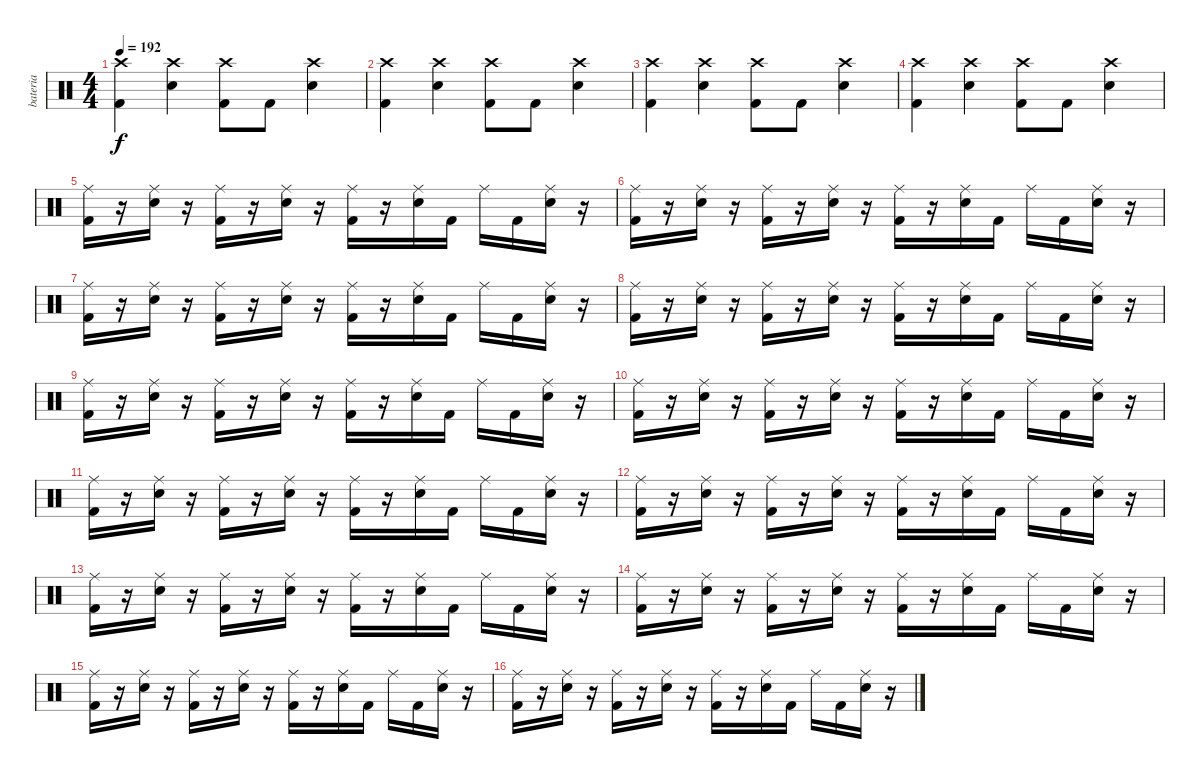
\track ("bateria" "bateria") {instrument percussion}
\staff {score}
\articulation defaults
\ts (4 4)
\tempo 192
\clef neutral
\ks c
("Crash high (hit)" "Kick (hit) 2").4{dy f} ("Crash high (hit)" "Snare (hit) 2").4 ("Crash high (hit)" "Kick (hit) 2").8 "Kick (hit) 2".8 ("Crash high (hit)" "Snare (hit) 2").4 |
("Crash high (hit)" "Kick (hit) 2").4 ("Crash high (hit)" "Snare (hit) 2").4 ("Crash high (hit)" "Kick (hit) 2").8 "Kick (hit) 2".8 ("Crash high (hit)" "Snare (hit) 2").4 |
("Crash high (hit)" "Kick (hit) 2").4 ("Crash high (hit)" "Snare (hit) 2").4 ("Crash high (hit)" "Kick (hit) 2").8 "Kick (hit) 2".8 ("Crash high (hit)" "Snare (hit) 2").4 |
("Crash high (hit)" "Kick (hit) 2").4 ("Crash high (hit)" "Snare (hit) 2").4 ("Crash high (hit)" "Kick (hit) 2").8 "Kick (hit) 2".8 ("Crash high (hit)" "Snare (hit) 2").4 |
("Ride (middle)" "Kick (hit) 2").16 r.16 ("Ride (middle)" "Snare (hit) 2").16 r.16 ("Ride (middle)" "Kick (hit) 2").16 r.16 ("Ride (middle)" "Snare (hit) 2").16 r.16 ("Ride (middle)" "Kick (hit) 2").16 r.16 ("Ride (middle)" "Snare (hit) 2").16 "Kick (hit) 2".16 "Ride (middle)".16 "Kick (hit) 2".16 ("Ride (middle)" "Snare (hit) 2").16 r.16 |
("Ride (middle)" "Kick (hit) 2").16 r.16 ("Ride (middle)" "Snare (hit) 2").16 r.16 ("Ride (middle)" "Kick (hit) 2").16 r.16 ("Ride (middle)" "Snare (hit) 2").16 r.16 ("Ride (middle)" "Kick (hit) 2").16 r.16 ("Ride (middle)" "Snare (hit) 2").16 "Kick (hit) 2".16 "Ride (middle)".16 "Kick (hit) 2".16 ("Ride (middle)" "Snare (hit) 2").16 r.16 |
("Ride (middle)" "Kick (hit) 2").16 r.16 ("Ride (middle)" "Snare (hit) 2").16 r.16 ("Ride (middle)" "Kick (hit) 2").16 r.16 ("Ride (middle)" "Snare (hit) 2").16 r.16 ("Ride (middle)" "Kick (hit) 2").16 r.16 ("Ride (middle)" "Snare (hit) 2").16 "Kick (hit) 2".16 "Ride (middle)".16 "Kick (hit) 2".16 ("Ride (middle)" "Snare (hit) 2").16 r.16 |
("Ride (middle)" "Kick (hit) 2").16 r.16 ("Ride (middle)" "Snare (hit) 2").16 r.16 ("Ride (middle)" "Kick (hit) 2").16 r.16 ("Ride (middle)" "Snare (hit) 2").16 r.16 ("Ride (middle)" "Kick (hit) 2").16 r.16 ("Ride (middle)" "Snare (hit) 2").16 "Kick (hit) 2".16 "Ride (middle)".16 "Kick (hit) 2".16 ("Ride (middle)" "Snare (hit) 2").16 r.16 |
("Ride (middle)" "Kick (hit) 2").16 r.16 ("Ride (middle)" "Snare (hit) 2").16 r.16 ("Ride (middle)" "Kick (hit) 2").16 r.16 ("Ride (middle)" "Snare (hit) 2").16 r.16 ("Ride (middle)" "Kick (hit) 2").16 r.16 ("Ride (middle)" "Snare (hit) 2").16 "Kick (hit) 2".16 "Ride (middle)".16 "Kick (hit) 2".16 ("Ride (middle)" "Snare (hit) 2").16 r.16 |
("Ride (middle)" "Kick (hit) 2").16 r.16 ("Ride (middle)" "Snare (hit) 2").16 r.16 ("Ride (middle)" "Kick (hit) 2").16 r.16 ("Ride (middle)" "Snare (hit) 2").16 r.16 ("Ride (middle)" "Kick (hit) 2").16 r.16 ("Ride (middle)" "Snare (hit) 2").16 "Kick (hit) 2".16 "Ride (middle)".16 "Kick (hit) 2".16 ("Ride (middle)" "Snare (hit) 2").16 r.16 |
("Ride (middle)" "Kick (hit) 2").16 r.16 ("Ride (middle)" "Snare (hit) 2").16 r.16 ("Ride (middle)" "Kick (hit) 2").16 r.16 ("Ride (middle)" "Snare (hit) 2").16 r.16 ("Ride (middle)" "Kick (hit) 2").16 r.16 ("Ride (middle)" "Snare (hit) 2").16 "Kick (hit) 2".16 "Ride (middle)".16 "Kick (hit) 2".16 ("Ride (middle)" "Snare (hit) 2").16 r.16 |
("Ride (middle)" "Kick (hit) 2").16 r.16 ("Ride (middle)" "Snare (hit) 2").16 r.16 ("Ride (middle)" "Kick (hit) 2").16 r.16 ("Ride (middle)" "Snare (hit) 2").16 r.16 ("Ride (middle)" "Kick (hit) 2").16 r.16 ("Ride (middle)" "Snare (hit) 2").16 "Kick (hit) 2".16 "Ride (middle)".16 "Kick (hit) 2".16 ("Ride (middle)" "Snare (hit) 2").16 r.16 |
("Ride (middle)" "Kick (hit) 2").16 r.16 ("Ride (middle)" "Snare (hit) 2").16 r.16 ("Ride (middle)" "Kick (hit) 2").16 r.16 ("Ride (middle)" "Snare (hit) 2").16 r.16 ("Ride (middle)" "Kick (hit) 2").16 r.16 ("Ride (middle)" "Snare (hit) 2").16 "Kick (hit) 2".16 "Ride (middle)".16 "Kick (hit) 2".16 ("Ride (middle)" "Snare (hit) 2").16 r.16 |
("Ride (middle)" "Kick (hit) 2").16 r.16 ("Ride (middle)" "Snare (hit) 2").16 r.16 ("Ride (middle)" "Kick (hit) 2").16 r.16 ("Ride (middle)" "Snare (hit) 2").16 r.16 ("Ride (middle)" "Kick (hit) 2").16 r.16 ("Ride (middle)" "Snare (hit) 2").16 "Kick (hit) 2".16 "Ride (middle)".16 "Kick (hit) 2".16 ("Ride (middle)" "Snare (hit) 2").16 r.16 |
("Ride (middle)" "Kick (hit) 2").16 r.16 ("Ride (middle)" "Snare (hit) 2").16 r.16 ("Ride (middle)" "Kick (hit) 2").16 r.16 ("Ride (middle)" "Snare (hit) 2").16 r.16 ("Ride (middle)" "Kick (hit) 2").16 r.16 ("Ride (middle)" "Snare (hit) 2").16 "Kick (hit) 2".16 "Ride (middle)".16 "Kick (hit) 2".16 ("Ride (middle)" "Snare (hit) 2").16 r.16 |
("Ride (middle)" "Kick (hit) 2").16 r.16 ("Ride (middle)" "Snare (hit) 2").16 r.16 ("Ride (middle)" "Kick (hit) 2").16 r.16 ("Ride (middle)" "Snare (hit) 2").16 r.16 ("Ride (middle)" "Kick (hit) 2").16 r.16 ("Ride (middle)" "Snare (hit) 2").16 "Kick (hit) 2".16 "Ride (middle)".16 "Kick (hit) 2".16 ("Ride (middle)" "Snare (hit) 2").16 r.16
